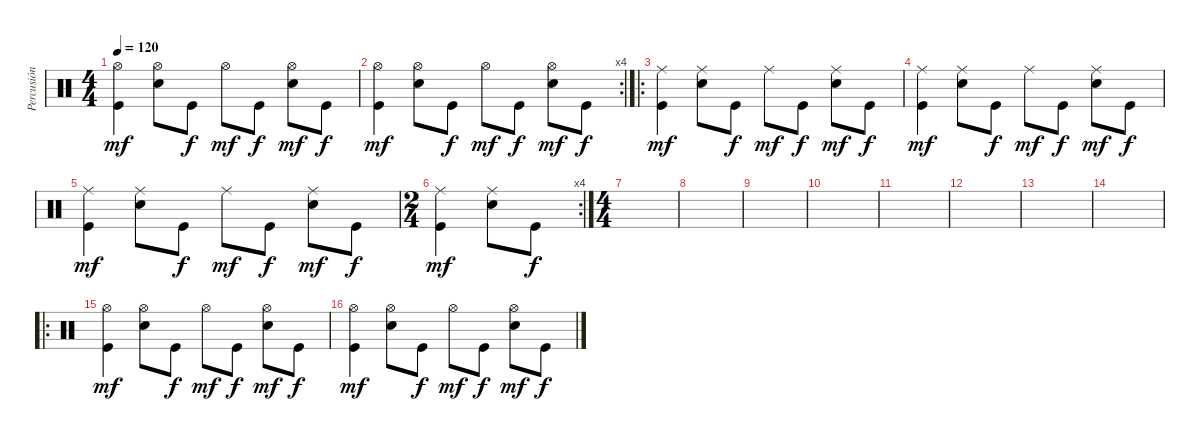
\track ("Percusión" "Percusión") {instrument percussion}
\staff {score}
\articulation defaults
\ts (4 4)
\tempo 120
\clef neutral
\ks c
("Kick (hit)" "Hi-Hat (open)").4{dy mf} ("Electric Snare (hit)" "Hi-Hat (open)").8 "Kick (hit)".8{dy f} "Hi-Hat (open)".8{dy mf} "Kick (hit)".8{dy f} ("Electric Snare (hit)" "Hi-Hat (open)").8{dy mf} "Kick (hit)".8{dy f} |
\rc 4
("Kick (hit)" "Hi-Hat (open)").4{dy mf} ("Electric Snare (hit)" "Hi-Hat (open)").8 "Kick (hit)".8{dy f} "Hi-Hat (open)".8{dy mf} "Kick (hit)".8{dy f} ("Electric Snare (hit)" "Hi-Hat (open)").8{dy mf} "Kick (hit)".8{dy f} |
\ro
("Kick (hit)" "Ride (middle)").4{dy mf} ("Electric Snare (hit)" "Ride (middle)").8 "Kick (hit)".8{dy f} "Ride (middle)".8{dy mf} "Kick (hit)".8{dy f} ("Electric Snare (hit)" "Ride (middle)").8{dy mf} "Kick (hit)".8{dy f} |
("Kick (hit)" "Ride (middle)").4{dy mf} ("Electric Snare (hit)" "Ride (middle)").8 "Kick (hit)".8{dy f} "Ride (middle)".8{dy mf} "Kick (hit)".8{dy f} ("Electric Snare (hit)" "Ride (middle)").8{dy mf} "Kick (hit)".8{dy f} |
("Kick (hit)" "Ride (middle)").4{dy mf} ("Electric Snare (hit)" "Ride (middle)").8 "Kick (hit)".8{dy f} "Ride (middle)".8{dy mf} "Kick (hit)".8{dy f} ("Electric Snare (hit)" "Ride (middle)").8{dy mf} "Kick (hit)".8{dy f} |
\rc 4
\ts (2 4)
("Kick (hit)" "Ride (middle)").4{dy mf} ("Electric Snare (hit)" "Ride (middle)").8 "Kick (hit)".8{dy f} |
\ts (4 4)
|
|
|
|
|
|
|
|
\ro
("Kick (hit)" "Hi-Hat (open)").4{dy mf} ("Electric Snare (hit)" "Hi-Hat (open)").8 "Kick (hit)".8{dy f} "Hi-Hat (open)".8{dy mf} "Kick (hit)".8{dy f} ("Electric Snare (hit)" "Hi-Hat (open)").8{dy mf} "Kick (hit)".8{dy f} |
("Kick (hit)" "Hi-Hat (open)").4{dy mf} ("Electric Snare (hit)" "Hi-Hat (open)").8 "Kick (hit)".8{dy f} "Hi-Hat (open)".8{dy mf} "Kick (hit)".8{dy f} ("Electric Snare (hit)" "Hi-Hat (open)").8{dy mf} "Kick (hit)".8{dy f}
